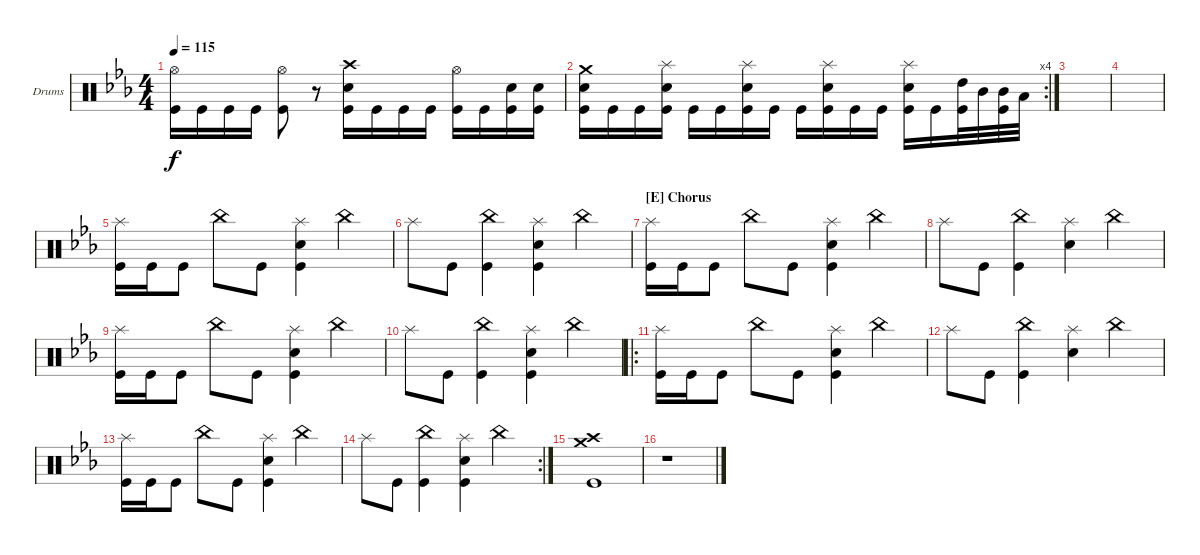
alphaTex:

\bracketExtendMode groupsimilarinstruments
\firstSystemTrackNameOrientation horizontal
\otherSystemsTrackNameOrientation horizontal
\track ("Drumkit" "Drums") {instrument percussion}
\staff {score}
\articulation defaults
\ts (4 4)
\tempo 115
\clef neutral
\ks cminor
("Kick (hit)" "Hi-Hat (open)").16{dy f} "Kick (hit)".16 "Kick (hit)".16 "Kick (hit)".16 ("Kick (hit)" "Hi-Hat (open)").8 r.8 ("Kick (hit)" "Snare (hit) 2" "Crash high (hit)").16 "Kick (hit)".16 "Kick (hit)".16 "Kick (hit)".16 ("Kick (hit)" "Hi-Hat (open)").16 "Kick (hit)".16 ("Kick (hit)" "Snare (hit) 2").16 ("Kick (hit)" "Snare (hit) 2").16 |
\rc 4
("Kick (hit)" "Snare (hit) 2" "Crash medium (hit)").16 "Kick (hit)".16 "Kick (hit)".16 ("Kick (hit)" "Snare (hit) 2" "Splash (hit)").16 "Kick (hit)".16 "Kick (hit)".16 ("Kick (hit)" "Snare (hit) 2" "Splash (hit)").16 "Kick (hit)".16 "Kick (hit)".16 ("Kick (hit)" "Snare (hit) 2" "Splash (hit)").16 "Kick (hit)".16 "Kick (hit)".16 ("Kick (hit)" "Snare (hit) 2" "Splash (hit)").16 "Kick (hit)".16 ("Kick (hit)" "High Tom (hit)").32 "Mid Tom (hit)".32 ("Kick (hit)" "Mid Tom (hit)").32 "Low Tom (hit)".32 |
|
|
("Kick (hit)" "Splash (hit)").16 "Kick (hit)".16 "Kick (hit)".8 "China (hit)".8 "Kick (hit)".8 ("Snare (hit) 2" "Kick (hit)" "Splash (hit)").4 "China (hit)".4 |
"Splash (hit)".8 "Kick (hit)".8 ("Kick (hit)" "China (hit)").4 ("Kick (hit)" "Splash (hit)" "Snare (hit) 2").4 "China (hit)".4 |
\section ("E" "Chorus")
("Kick (hit)" "Splash (hit)").16 "Kick (hit)".16 "Kick (hit)".8 "China (hit)".8 "Kick (hit)".8 ("Snare (hit) 2" "Kick (hit)" "Splash (hit)").4 "China (hit)".4 |
"Splash (hit)".8 "Kick (hit)".8 ("Kick (hit)" "China (hit)").4 ("Splash (hit)" "Snare (hit) 2").4 "China (hit)".4 |
("Kick (hit)" "Splash (hit)").16 "Kick (hit)".16 "Kick (hit)".8 "China (hit)".8 "Kick (hit)".8 ("Snare (hit) 2" "Kick (hit)" "Splash (hit)").4 "China (hit)".4 |
"Splash (hit)".8 "Kick (hit)".8 ("Kick (hit)" "China (hit)").4 ("Kick (hit)" "Splash (hit)" "Snare (hit) 2").4 "China (hit)".4 |
\ro
("Kick (hit)" "Splash (hit)").16 "Kick (hit)".16 "Kick (hit)".8 "China (hit)".8 "Kick (hit)".8 ("Snare (hit) 2" "Kick (hit)" "Splash (hit)").4 "China (hit)".4 |
"Splash (hit)".8 "Kick (hit)".8 ("Kick (hit)" "China (hit)").4 ("Splash (hit)" "Snare (hit) 2").4 "China (hit)".4 |
("Kick (hit)" "Splash (hit)").16 "Kick (hit)".16 "Kick (hit)".8 "China (hit)".8 "Kick (hit)".8 ("Snare (hit) 2" "Kick (hit)" "Splash (hit)").4 "China (hit)".4 |
\rc 2 "Splash (hit)".8 "Kick (hit)".8
("Kick (hit)" "China (hit)").4 ("Kick (hit)" "Splash (hit)" "Snare (hit) 2").4 "China (hit)".4 |
("Crash medium (hit)" "Crash high (hit)" "Kick (hit)").1 |
r.1
